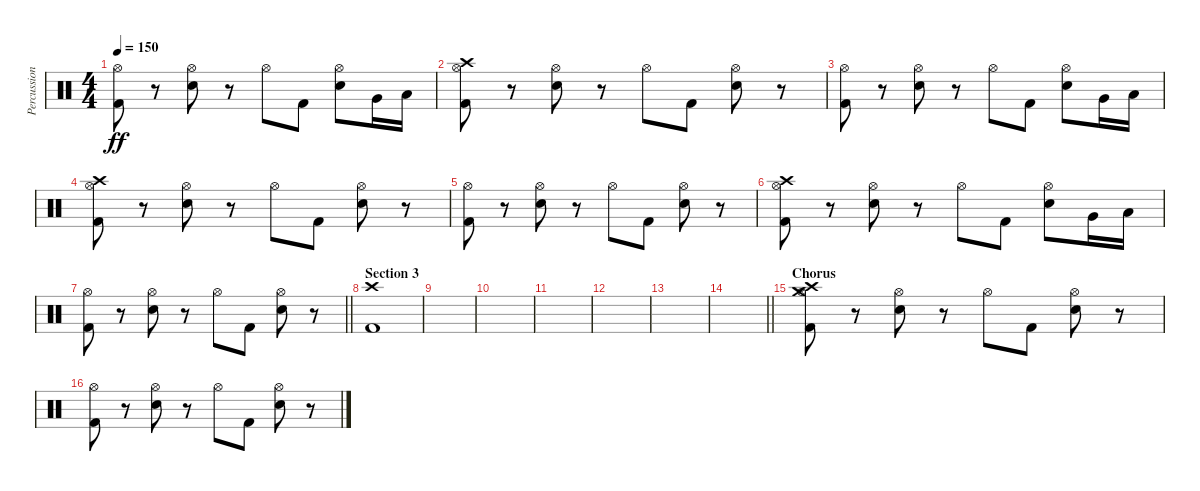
\track ("Percussion" "Percussion") {instrument percussion}
\staff {score}
\articulation defaults
\ts (4 4)
\tempo 150
\clef neutral
\ks c
("Hi-Hat (open)" "Kick (hit) 2").8{dy ff} r.8 ("Hi-Hat (open)" "Snare (hit) 2").8 r.8 "Hi-Hat (open)".8 "Kick (hit) 2".8 ("Hi-Hat (open)" "Snare (hit) 2").8 "Very Low Tom (hit)".16 "Low Floor Tom (hit)".16 |
("Hi-Hat (open)" "Crash high (hit)" "Kick (hit) 2").8 r.8 ("Hi-Hat (open)" "Snare (hit) 2").8 r.8 "Hi-Hat (open)".8 "Kick (hit) 2".8 ("Hi-Hat (open)" "Snare (hit) 2").8 r.8 |
("Hi-Hat (open)" "Kick (hit) 2").8 r.8 ("Hi-Hat (open)" "Snare (hit) 2").8 r.8 "Hi-Hat (open)".8 "Kick (hit) 2".8 ("Hi-Hat (open)" "Snare (hit) 2").8 "Very Low Tom (hit)".16 "Low Floor Tom (hit)".16 |
("Hi-Hat (open)" "Crash high (hit)" "Kick (hit) 2").8 r.8 ("Hi-Hat (open)" "Snare (hit) 2").8 r.8 "Hi-Hat (open)".8 "Kick (hit) 2".8 ("Hi-Hat (open)" "Snare (hit) 2").8 r.8 |
("Hi-Hat (open)" "Kick (hit) 2").8 r.8 ("Hi-Hat (open)" "Snare (hit) 2").8 r.8 "Hi-Hat (open)".8 "Kick (hit) 2".8 ("Hi-Hat (open)" "Snare (hit) 2").8 r.8 |
("Hi-Hat (open)" "Crash high (hit)" "Kick (hit) 2").8 r.8 ("Hi-Hat (open)" "Snare (hit) 2").8 r.8 "Hi-Hat (open)".8 "Kick (hit) 2".8 ("Hi-Hat (open)" "Snare (hit) 2").8 "Very Low Tom (hit)".16 "Low Floor Tom (hit)".16 |
\barLineRight lightlight
("Hi-Hat (open)" "Kick (hit) 2").8 r.8 ("Hi-Hat (open)" "Snare (hit) 2").8 r.8 "Hi-Hat (open)".8 "Kick (hit) 2".8 ("Hi-Hat (open)" "Snare (hit) 2").8 r.8 |
\section ("" "Section 3")
("Crash high (hit)" "Kick (hit) 2").1 |
|
|
|
|
|
\barLineRight lightlight
|
\section ("" "Chorus")
("Hi-Hat (open)" "Crash high (hit)" "Crash medium (hit)" "Kick (hit) 2").8 r.8 ("Hi-Hat (open)" "Snare (hit) 2").8 r.8 "Hi-Hat (open)".8 "Kick (hit) 2".8 ("Hi-Hat (open)" "Snare (hit) 2").8 r.8 |
("Hi-Hat (open)" "Kick (hit) 2").8 r.8 ("Hi-Hat (open)" "Snare (hit) 2").8 r.8 "Hi-Hat (open)".8 "Kick (hit) 2".8 ("Hi-Hat (open)" "Snare (hit) 2").8 r.8
